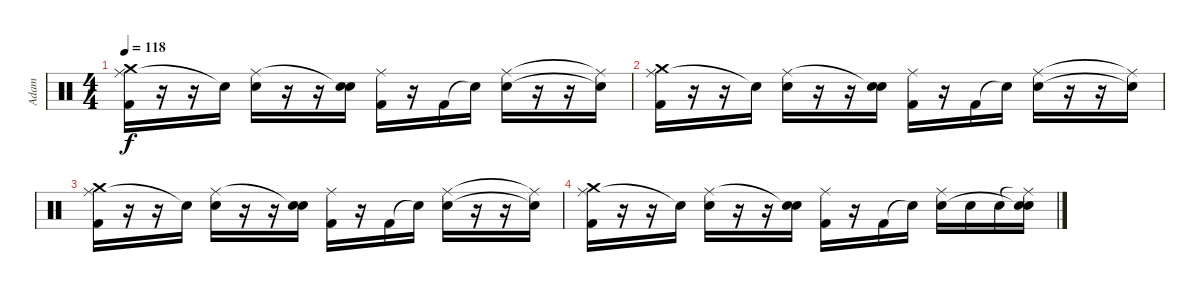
\track ("Adam" "Adam") {instrument percussion}
\staff {score}
\articulation defaults
\ts (4 4)
\tempo 118
\clef neutral
\ks c
("Ride (middle)" "Crash medium (hit)" "Kick (hit) 2").16{dy f} r.16 r.16 "Snare (hit)"{t}.16 ("Ride (middle)" "Snare (hit) 2").16 r.16 r.16 ("Snare (hit)"{t} "Snare (hit) 2").16 ("Ride (middle)" "Kick (hit) 2").16 r.16 "Kick (hit) 2".16 "Snare (hit)"{t}.16 ("Ride (middle)" "Snare (hit) 2").16 r.16 r.16 ("Ride (middle)"{t} "Snare (hit)"{t}).16 |
("Ride (middle)" "Crash medium (hit)" "Kick (hit) 2").16 r.16 r.16 "Snare (hit)"{t}.16 ("Ride (middle)" "Snare (hit) 2").16 r.16 r.16 ("Snare (hit)"{t} "Snare (hit) 2").16 ("Ride (middle)" "Kick (hit) 2").16 r.16 "Kick (hit) 2".16 "Snare (hit)"{t}.16 ("Ride (middle)" "Snare (hit) 2").16 r.16 r.16 ("Ride (middle)"{t} "Snare (hit)"{t}).16 |
("Ride (middle)" "Crash medium (hit)" "Kick (hit) 2").16 r.16 r.16 "Snare (hit)"{t}.16 ("Ride (middle)" "Snare (hit) 2").16 r.16 r.16 ("Snare (hit)"{t} "Snare (hit) 2").16 ("Ride (middle)" "Kick (hit) 2").16 r.16 "Kick (hit) 2".16 "Snare (hit)"{t}.16 ("Ride (middle)" "Snare (hit) 2").16 r.16 r.16 ("Ride (middle)"{t} "Snare (hit)"{t}).16 |
("Ride (middle)" "Crash medium (hit)" "Kick (hit) 2").16 r.16 r.16 "Snare (hit)"{t}.16 ("Ride (middle)" "Snare (hit) 2").16 r.16 r.16 ("Snare (hit)"{t} "Snare (hit) 2").16 ("Ride (middle)" "Kick (hit) 2").16 r.16 "Kick (hit) 2".16 "Snare (hit)"{t}.16 ("Ride (middle)" "Snare (hit) 2").16 "Snare (hit) 2".16 "Snare (hit) 2".16 ("Ride (middle)"{t} "Snare (hit)"{t} "Snare (hit) 2").16
